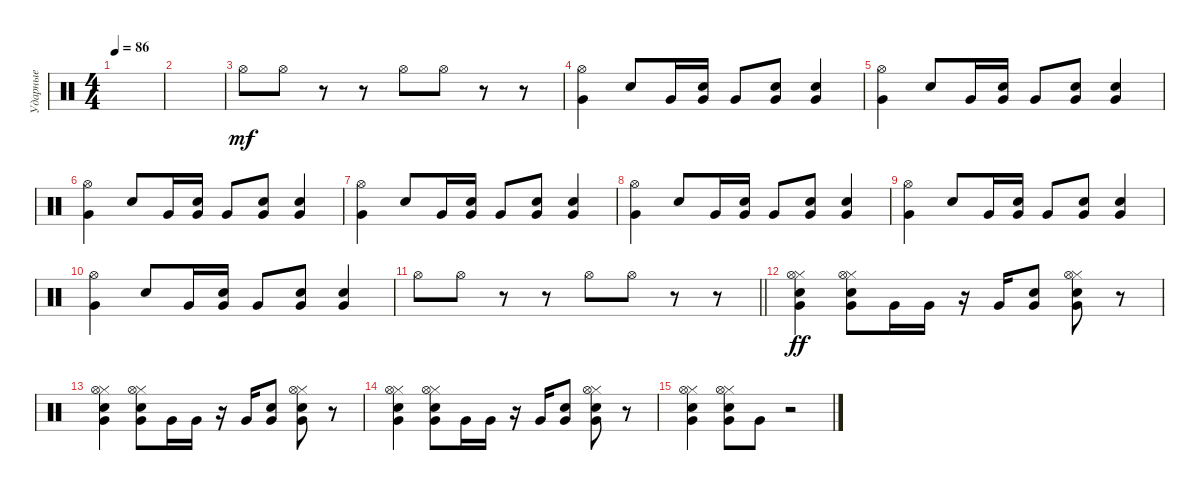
\track ("Ударные" "Ударные") {instrument percussion}
\staff {score}
\articulation defaults
\ts (4 4)
\tempo 86
\clef neutral
\ks c
|
|
"Hi-Hat (open)".8{dy mf} "Hi-Hat (open)".8 r.8 r.8 "Hi-Hat (open)".8 "Hi-Hat (open)".8 r.8 r.8 |
("Very Low Tom (hit)" "Hi-Hat (open)").4 "Electric Snare (hit)".8 "Very Low Tom (hit)".16 ("Very Low Tom (hit)" "Electric Snare (hit)").16 "Very Low Tom (hit)".8 ("Very Low Tom (hit)" "Electric Snare (hit)").8 ("Very Low Tom (hit)" "Electric Snare (hit)").4 |
("Very Low Tom (hit)" "Hi-Hat (open)").4 "Electric Snare (hit)".8 "Very Low Tom (hit)".16 ("Very Low Tom (hit)" "Electric Snare (hit)").16 "Very Low Tom (hit)".8 ("Very Low Tom (hit)" "Electric Snare (hit)").8 ("Very Low Tom (hit)" "Electric Snare (hit)").4 |
("Very Low Tom (hit)" "Hi-Hat (open)").4 "Electric Snare (hit)".8 "Very Low Tom (hit)".16 ("Very Low Tom (hit)" "Electric Snare (hit)").16 "Very Low Tom (hit)".8 ("Very Low Tom (hit)" "Electric Snare (hit)").8 ("Very Low Tom (hit)" "Electric Snare (hit)").4 |
("Very Low Tom (hit)" "Hi-Hat (open)").4 "Electric Snare (hit)".8 "Very Low Tom (hit)".16 ("Very Low Tom (hit)" "Electric Snare (hit)").16 "Very Low Tom (hit)".8 ("Very Low Tom (hit)" "Electric Snare (hit)").8 ("Very Low Tom (hit)" "Electric Snare (hit)").4 |
("Very Low Tom (hit)" "Hi-Hat (open)").4 "Electric Snare (hit)".8 "Very Low Tom (hit)".16 ("Very Low Tom (hit)" "Electric Snare (hit)").16 "Very Low Tom (hit)".8 ("Very Low Tom (hit)" "Electric Snare (hit)").8 ("Very Low Tom (hit)" "Electric Snare (hit)").4 |
("Very Low Tom (hit)" "Hi-Hat (open)").4 "Electric Snare (hit)".8 "Very Low Tom (hit)".16 ("Very Low Tom (hit)" "Electric Snare (hit)").16 "Very Low Tom (hit)".8 ("Very Low Tom (hit)" "Electric Snare (hit)").8 ("Very Low Tom (hit)" "Electric Snare (hit)").4 |
("Very Low Tom (hit)" "Hi-Hat (open)").4 "Electric Snare (hit)".8 "Very Low Tom (hit)".16 ("Very Low Tom (hit)" "Electric Snare (hit)").16 "Very Low Tom (hit)".8 ("Very Low Tom (hit)" "Electric Snare (hit)").8 ("Very Low Tom (hit)" "Electric Snare (hit)").4 |
\barLineRight lightlight "Hi-Hat (open)".8 "Hi-Hat (open)".8
r.8 r.8 "Hi-Hat (open)".8 "Hi-Hat (open)".8 r.8 r.8 |
("Very Low Tom (hit)" "Electric Snare (hit)" "Hi-Hat (closed)" "Hi-Hat (open)").4{dy ff} ("Very Low Tom (hit)" "Electric Snare (hit)" "Hi-Hat (closed)" "Hi-Hat (open)").8 "Very Low Tom (hit)".16 "Very Low Tom (hit)".16 r.16 "Very Low Tom (hit)".16 ("Electric Snare (hit)" "Very Low Tom (hit)").8 ("Very Low Tom (hit)" "Electric Snare (hit)" "Hi-Hat (closed)" "Hi-Hat (open)").8 r.8 |
("Very Low Tom (hit)" "Electric Snare (hit)" "Hi-Hat (closed)" "Hi-Hat (open)").4 ("Very Low Tom (hit)" "Electric Snare (hit)" "Hi-Hat (closed)" "Hi-Hat (open)").8 "Very Low Tom (hit)".16 "Very Low Tom (hit)".16 r.16 "Very Low Tom (hit)".16 ("Electric Snare (hit)" "Very Low Tom (hit)").8 ("Very Low Tom (hit)" "Electric Snare (hit)" "Hi-Hat (closed)" "Hi-Hat (open)").8 r.8 |
("Very Low Tom (hit)" "Electric Snare (hit)" "Hi-Hat (closed)" "Hi-Hat (open)").4 ("Very Low Tom (hit)" "Electric Snare (hit)" "Hi-Hat (closed)" "Hi-Hat (open)").8 "Very Low Tom (hit)".16 "Very Low Tom (hit)".16 r.16 "Very Low Tom (hit)".16 ("Electric Snare (hit)" "Very Low Tom (hit)").8 ("Very Low Tom (hit)" "Electric Snare (hit)" "Hi-Hat (closed)" "Hi-Hat (open)").8 r.8 |
("Very Low Tom (hit)" "Electric Snare (hit)" "Hi-Hat (closed)" "Hi-Hat (open)").4 ("Very Low Tom (hit)" "Electric Snare (hit)" "Hi-Hat (closed)" "Hi-Hat (open)").8 "Very Low Tom (hit)".8 r.2
